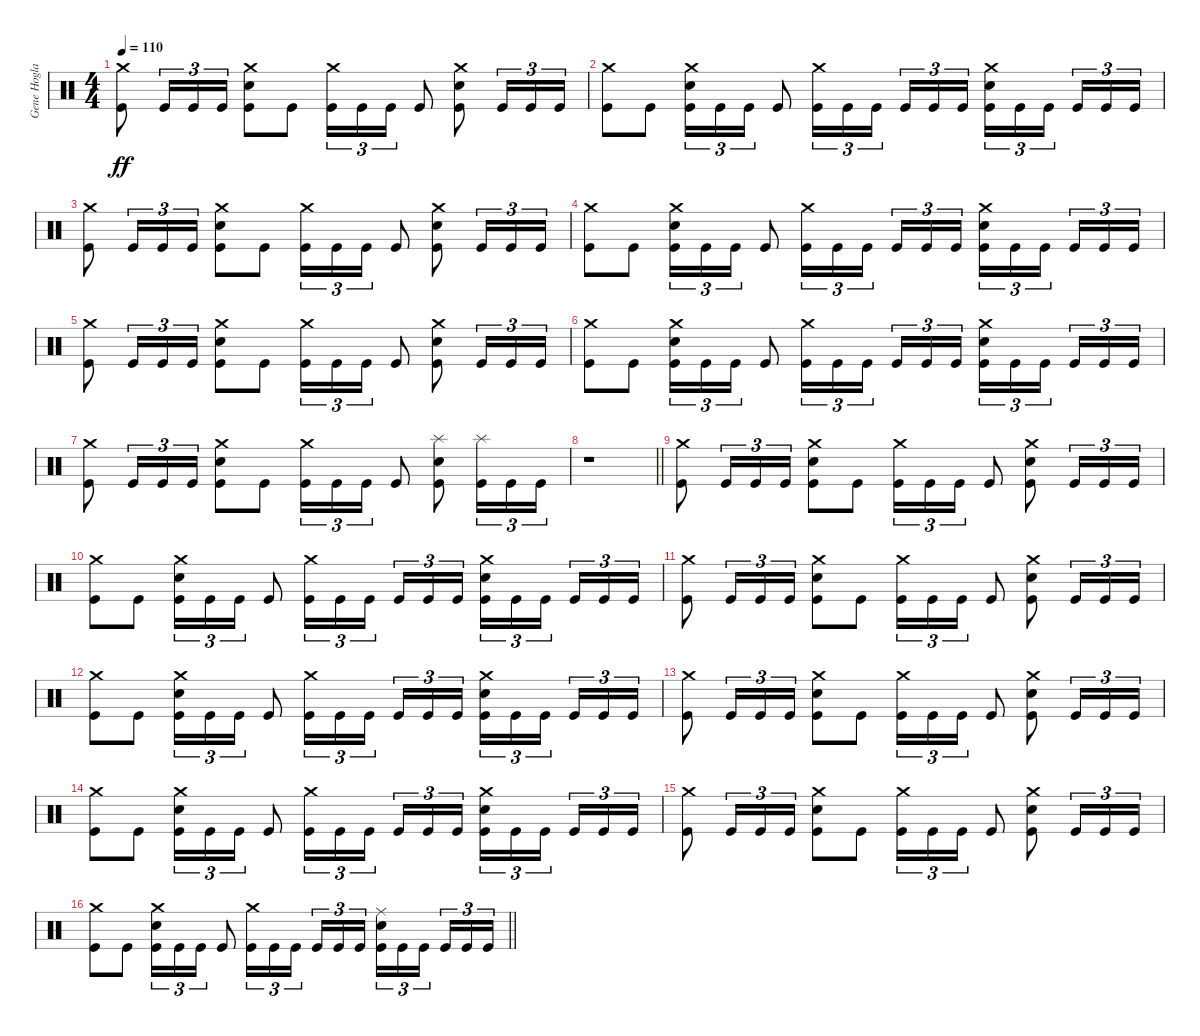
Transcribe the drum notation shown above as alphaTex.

\track ("Gene Hoglan" "Gene Hogla") {instrument percussion}
\staff {score}
\articulation defaults
\ts (4 4)
\section ("" "")
\tempo 110
\clef neutral
\ks c
("Crash medium (hit)" "Kick (hit)").8{dy ff} "Kick (hit)".16{tu (3 2)} "Kick (hit)".16{tu (3 2)} "Kick (hit)".16{tu (3 2)} ("Crash medium (hit)" "Electric Snare (hit)" "Kick (hit)").8 "Kick (hit)".8 ("Crash medium (hit)" "Kick (hit)").16{tu (3 2)} "Kick (hit)".16{tu (3 2)} "Kick (hit)".16{tu (3 2)} "Kick (hit)".8 ("Crash medium (hit)" "Electric Snare (hit)" "Kick (hit)").8 "Kick (hit)".16{tu (3 2)} "Kick (hit)".16{tu (3 2)} "Kick (hit)".16{tu (3 2)} |
("Crash medium (hit)" "Kick (hit)").8 "Kick (hit)".8 ("Crash medium (hit)" "Electric Snare (hit)" "Kick (hit)").16{tu (3 2)} "Kick (hit)".16{tu (3 2)} "Kick (hit)".16{tu (3 2)} "Kick (hit)".8 ("Crash medium (hit)" "Kick (hit)").16{tu (3 2)} "Kick (hit)".16{tu (3 2)} "Kick (hit)".16{tu (3 2) beam splitsecondary} "Kick (hit)".16{tu (3 2)} "Kick (hit)".16{tu (3 2)} "Kick (hit)".16{tu (3 2)} ("Crash medium (hit)" "Electric Snare (hit)" "Kick (hit)").16{tu (3 2)} "Kick (hit)".16{tu (3 2)} "Kick (hit)".16{tu (3 2) beam splitsecondary} "Kick (hit)".16{tu (3 2)} "Kick (hit)".16{tu (3 2)} "Kick (hit)".16{tu (3 2)} |
("Crash medium (hit)" "Kick (hit)").8 "Kick (hit)".16{tu (3 2)} "Kick (hit)".16{tu (3 2)} "Kick (hit)".16{tu (3 2)} ("Crash medium (hit)" "Electric Snare (hit)" "Kick (hit)").8 "Kick (hit)".8 ("Crash medium (hit)" "Kick (hit)").16{tu (3 2)} "Kick (hit)".16{tu (3 2)} "Kick (hit)".16{tu (3 2)} "Kick (hit)".8 ("Crash medium (hit)" "Electric Snare (hit)" "Kick (hit)").8 "Kick (hit)".16{tu (3 2)} "Kick (hit)".16{tu (3 2)} "Kick (hit)".16{tu (3 2)} |
("Crash medium (hit)" "Kick (hit)").8 "Kick (hit)".8 ("Crash medium (hit)" "Electric Snare (hit)" "Kick (hit)").16{tu (3 2)} "Kick (hit)".16{tu (3 2)} "Kick (hit)".16{tu (3 2)} "Kick (hit)".8 ("Crash medium (hit)" "Kick (hit)").16{tu (3 2)} "Kick (hit)".16{tu (3 2)} "Kick (hit)".16{tu (3 2) beam splitsecondary} "Kick (hit)".16{tu (3 2)} "Kick (hit)".16{tu (3 2)} "Kick (hit)".16{tu (3 2)} ("Crash medium (hit)" "Electric Snare (hit)" "Kick (hit)").16{tu (3 2)} "Kick (hit)".16{tu (3 2)} "Kick (hit)".16{tu (3 2) beam splitsecondary} "Kick (hit)".16{tu (3 2)} "Kick (hit)".16{tu (3 2)} "Kick (hit)".16{tu (3 2)} |
("Crash medium (hit)" "Kick (hit)").8 "Kick (hit)".16{tu (3 2)} "Kick (hit)".16{tu (3 2)} "Kick (hit)".16{tu (3 2)} ("Crash medium (hit)" "Electric Snare (hit)" "Kick (hit)").8 "Kick (hit)".8 ("Crash medium (hit)" "Kick (hit)").16{tu (3 2)} "Kick (hit)".16{tu (3 2)} "Kick (hit)".16{tu (3 2)} "Kick (hit)".8 ("Crash medium (hit)" "Electric Snare (hit)" "Kick (hit)").8 "Kick (hit)".16{tu (3 2)} "Kick (hit)".16{tu (3 2)} "Kick (hit)".16{tu (3 2)} |
("Crash medium (hit)" "Kick (hit)").8 "Kick (hit)".8 ("Crash medium (hit)" "Electric Snare (hit)" "Kick (hit)").16{tu (3 2)} "Kick (hit)".16{tu (3 2)} "Kick (hit)".16{tu (3 2)} "Kick (hit)".8 ("Crash medium (hit)" "Kick (hit)").16{tu (3 2)} "Kick (hit)".16{tu (3 2)} "Kick (hit)".16{tu (3 2) beam splitsecondary} "Kick (hit)".16{tu (3 2)} "Kick (hit)".16{tu (3 2)} "Kick (hit)".16{tu (3 2)} ("Crash medium (hit)" "Electric Snare (hit)" "Kick (hit)").16{tu (3 2)} "Kick (hit)".16{tu (3 2)} "Kick (hit)".16{tu (3 2) beam splitsecondary} "Kick (hit)".16{tu (3 2)} "Kick (hit)".16{tu (3 2)} "Kick (hit)".16{tu (3 2)} |
("Crash medium (hit)" "Kick (hit)").8 "Kick (hit)".16{tu (3 2)} "Kick (hit)".16{tu (3 2)} "Kick (hit)".16{tu (3 2)} ("Crash medium (hit)" "Electric Snare (hit)" "Kick (hit)").8 "Kick (hit)".8 ("Crash medium (hit)" "Kick (hit)").16{tu (3 2)} "Kick (hit)".16{tu (3 2)} "Kick (hit)".16{tu (3 2)} "Kick (hit)".8 ("Splash (hit)" "Electric Snare (hit)" "Kick (hit)").8 ("Splash (hit)" "Kick (hit)").16{tu (3 2)} "Kick (hit)".16{tu (3 2)} "Kick (hit)".16{tu (3 2)} |
\barLineRight lightlight
r.1 |
\section ("" "")
("Crash medium (hit)" "Kick (hit)").8 "Kick (hit)".16{tu (3 2)} "Kick (hit)".16{tu (3 2)} "Kick (hit)".16{tu (3 2)} ("Crash medium (hit)" "Electric Snare (hit)" "Kick (hit)").8 "Kick (hit)".8 ("Crash medium (hit)" "Kick (hit)").16{tu (3 2)} "Kick (hit)".16{tu (3 2)} "Kick (hit)".16{tu (3 2)} "Kick (hit)".8 ("Crash medium (hit)" "Electric Snare (hit)" "Kick (hit)").8 "Kick (hit)".16{tu (3 2)} "Kick (hit)".16{tu (3 2)} "Kick (hit)".16{tu (3 2)} |
("Crash medium (hit)" "Kick (hit)").8 "Kick (hit)".8 ("Crash medium (hit)" "Electric Snare (hit)" "Kick (hit)").16{tu (3 2)} "Kick (hit)".16{tu (3 2)} "Kick (hit)".16{tu (3 2)} "Kick (hit)".8 ("Crash medium (hit)" "Kick (hit)").16{tu (3 2)} "Kick (hit)".16{tu (3 2)} "Kick (hit)".16{tu (3 2) beam splitsecondary} "Kick (hit)".16{tu (3 2)} "Kick (hit)".16{tu (3 2)} "Kick (hit)".16{tu (3 2)} ("Crash medium (hit)" "Electric Snare (hit)" "Kick (hit)").16{tu (3 2)} "Kick (hit)".16{tu (3 2)} "Kick (hit)".16{tu (3 2) beam splitsecondary} "Kick (hit)".16{tu (3 2)} "Kick (hit)".16{tu (3 2)} "Kick (hit)".16{tu (3 2)} |
("Crash medium (hit)" "Kick (hit)").8 "Kick (hit)".16{tu (3 2)} "Kick (hit)".16{tu (3 2)} "Kick (hit)".16{tu (3 2)} ("Crash medium (hit)" "Electric Snare (hit)" "Kick (hit)").8 "Kick (hit)".8 ("Crash medium (hit)" "Kick (hit)").16{tu (3 2)} "Kick (hit)".16{tu (3 2)} "Kick (hit)".16{tu (3 2)} "Kick (hit)".8 ("Crash medium (hit)" "Electric Snare (hit)" "Kick (hit)").8 "Kick (hit)".16{tu (3 2)} "Kick (hit)".16{tu (3 2)} "Kick (hit)".16{tu (3 2)} |
("Crash medium (hit)" "Kick (hit)").8 "Kick (hit)".8 ("Crash medium (hit)" "Electric Snare (hit)" "Kick (hit)").16{tu (3 2)} "Kick (hit)".16{tu (3 2)} "Kick (hit)".16{tu (3 2)} "Kick (hit)".8 ("Crash medium (hit)" "Kick (hit)").16{tu (3 2)} "Kick (hit)".16{tu (3 2)} "Kick (hit)".16{tu (3 2) beam splitsecondary} "Kick (hit)".16{tu (3 2)} "Kick (hit)".16{tu (3 2)} "Kick (hit)".16{tu (3 2)} ("Crash medium (hit)" "Electric Snare (hit)" "Kick (hit)").16{tu (3 2)} "Kick (hit)".16{tu (3 2)} "Kick (hit)".16{tu (3 2) beam splitsecondary} "Kick (hit)".16{tu (3 2)} "Kick (hit)".16{tu (3 2)} "Kick (hit)".16{tu (3 2)} |
("Crash medium (hit)" "Kick (hit)").8 "Kick (hit)".16{tu (3 2)} "Kick (hit)".16{tu (3 2)} "Kick (hit)".16{tu (3 2)} ("Crash medium (hit)" "Electric Snare (hit)" "Kick (hit)").8 "Kick (hit)".8 ("Crash medium (hit)" "Kick (hit)").16{tu (3 2)} "Kick (hit)".16{tu (3 2)} "Kick (hit)".16{tu (3 2)} "Kick (hit)".8 ("Crash medium (hit)" "Electric Snare (hit)" "Kick (hit)").8 "Kick (hit)".16{tu (3 2)} "Kick (hit)".16{tu (3 2)} "Kick (hit)".16{tu (3 2)} |
("Crash medium (hit)" "Kick (hit)").8 "Kick (hit)".8 ("Crash medium (hit)" "Electric Snare (hit)" "Kick (hit)").16{tu (3 2)} "Kick (hit)".16{tu (3 2)} "Kick (hit)".16{tu (3 2)} "Kick (hit)".8 ("Crash medium (hit)" "Kick (hit)").16{tu (3 2)} "Kick (hit)".16{tu (3 2)} "Kick (hit)".16{tu (3 2) beam splitsecondary} "Kick (hit)".16{tu (3 2)} "Kick (hit)".16{tu (3 2)} "Kick (hit)".16{tu (3 2)} ("Crash medium (hit)" "Electric Snare (hit)" "Kick (hit)").16{tu (3 2)} "Kick (hit)".16{tu (3 2)} "Kick (hit)".16{tu (3 2) beam splitsecondary} "Kick (hit)".16{tu (3 2)} "Kick (hit)".16{tu (3 2)} "Kick (hit)".16{tu (3 2)} |
("Crash medium (hit)" "Kick (hit)").8 "Kick (hit)".16{tu (3 2)} "Kick (hit)".16{tu (3 2)} "Kick (hit)".16{tu (3 2)} ("Crash medium (hit)" "Electric Snare (hit)" "Kick (hit)").8 "Kick (hit)".8 ("Crash medium (hit)" "Kick (hit)").16{tu (3 2)} "Kick (hit)".16{tu (3 2)} "Kick (hit)".16{tu (3 2)} "Kick (hit)".8 ("Crash medium (hit)" "Electric Snare (hit)" "Kick (hit)").8 "Kick (hit)".16{tu (3 2)} "Kick (hit)".16{tu (3 2)} "Kick (hit)".16{tu (3 2)} |
\barLineRight lightlight
("Crash medium (hit)" "Kick (hit)").8 "Kick (hit)".8 ("Crash medium (hit)" "Electric Snare (hit)" "Kick (hit)").16{tu (3 2)} "Kick (hit)".16{tu (3 2)} "Kick (hit)".16{tu (3 2)} "Kick (hit)".8 ("Crash medium (hit)" "Kick (hit)").16{tu (3 2)} "Kick (hit)".16{tu (3 2)} "Kick (hit)".16{tu (3 2) beam splitsecondary} "Kick (hit)".16{tu (3 2)} "Kick (hit)".16{tu (3 2)} "Kick (hit)".16{tu (3 2)} ("Ride (middle)" "Electric Snare (hit)" "Kick (hit)").16{tu (3 2)} "Kick (hit)".16{tu (3 2)} "Kick (hit)".16{tu (3 2) beam splitsecondary} "Kick (hit)".16{tu (3 2)} "Kick (hit)".16{tu (3 2)} "Kick (hit)".16{tu (3 2)}
